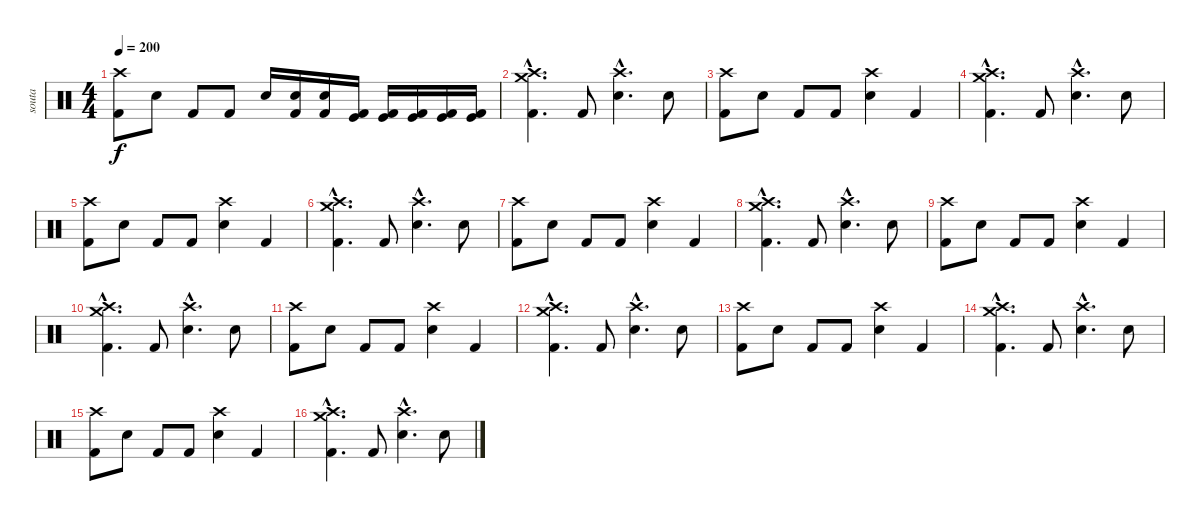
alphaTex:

\track ("souta" "souta") {instrument percussion}
\staff {score}
\articulation defaults
\ts (4 4)
\tempo 200
\clef neutral
\ks c
("Crash high (hit)" "Kick (hit) 2").8{dy f} "Snare (hit) 2".8 "Kick (hit) 2".8 "Kick (hit) 2".8 "Snare (hit) 2".16 ("Kick (hit) 2" "Snare (hit) 2").16 ("Kick (hit) 2" "Snare (hit) 2").16 ("Kick (hit) 2" "Kick (hit)").16 ("Kick (hit) 2" "Kick (hit)").16 ("Kick (hit) 2" "Kick (hit)").16 ("Kick (hit) 2" "Kick (hit)").16 ("Kick (hit) 2" "Kick (hit)").16 |
("Crash high (hit)"{hac} "Kick (hit) 2"{hac} "Crash medium (hit)"{hac}).4{d} "Kick (hit) 2".8 ("Crash high (hit)"{hac} "Snare (hit) 2"{hac}).4{d} "Snare (hit) 2".8 |
("Crash high (hit)" "Kick (hit) 2").8 "Snare (hit) 2".8 "Kick (hit) 2".8 "Kick (hit) 2".8 ("Crash high (hit)" "Snare (hit) 2").4 "Kick (hit) 2".4 |
("Crash high (hit)"{hac} "Kick (hit) 2"{hac} "Crash medium (hit)"{hac}).4{d} "Kick (hit) 2".8 ("Crash high (hit)"{hac} "Snare (hit) 2"{hac}).4{d} "Snare (hit) 2".8 |
("Crash high (hit)" "Kick (hit) 2").8 "Snare (hit) 2".8 "Kick (hit) 2".8 "Kick (hit) 2".8 ("Crash high (hit)" "Snare (hit) 2").4 "Kick (hit) 2".4 |
("Crash high (hit)"{hac} "Kick (hit) 2"{hac} "Crash medium (hit)"{hac}).4{d} "Kick (hit) 2".8 ("Crash high (hit)"{hac} "Snare (hit) 2"{hac}).4{d} "Snare (hit) 2".8 |
("Crash high (hit)" "Kick (hit) 2").8 "Snare (hit) 2".8 "Kick (hit) 2".8 "Kick (hit) 2".8 ("Crash high (hit)" "Snare (hit) 2").4 "Kick (hit) 2".4 |
("Crash high (hit)"{hac} "Kick (hit) 2"{hac} "Crash medium (hit)"{hac}).4{d} "Kick (hit) 2".8 ("Crash high (hit)"{hac} "Snare (hit) 2"{hac}).4{d} "Snare (hit) 2".8 |
("Crash high (hit)" "Kick (hit) 2").8 "Snare (hit) 2".8 "Kick (hit) 2".8 "Kick (hit) 2".8 ("Crash high (hit)" "Snare (hit) 2").4 "Kick (hit) 2".4 |
("Crash high (hit)"{hac} "Kick (hit) 2"{hac} "Crash medium (hit)"{hac}).4{d} "Kick (hit) 2".8 ("Crash high (hit)"{hac} "Snare (hit) 2"{hac}).4{d} "Snare (hit) 2".8 |
("Crash high (hit)" "Kick (hit) 2").8 "Snare (hit) 2".8 "Kick (hit) 2".8 "Kick (hit) 2".8 ("Crash high (hit)" "Snare (hit) 2").4 "Kick (hit) 2".4 |
("Crash high (hit)"{hac} "Kick (hit) 2"{hac} "Crash medium (hit)"{hac}).4{d} "Kick (hit) 2".8 ("Crash high (hit)"{hac} "Snare (hit) 2"{hac}).4{d} "Snare (hit) 2".8 |
("Crash high (hit)" "Kick (hit) 2").8 "Snare (hit) 2".8 "Kick (hit) 2".8 "Kick (hit) 2".8 ("Crash high (hit)" "Snare (hit) 2").4 "Kick (hit) 2".4 |
("Crash high (hit)"{hac} "Kick (hit) 2"{hac} "Crash medium (hit)"{hac}).4{d} "Kick (hit) 2".8 ("Crash high (hit)"{hac} "Snare (hit) 2"{hac}).4{d} "Snare (hit) 2".8 |
("Crash high (hit)" "Kick (hit) 2").8 "Snare (hit) 2".8 "Kick (hit) 2".8 "Kick (hit) 2".8 ("Crash high (hit)" "Snare (hit) 2").4 "Kick (hit) 2".4 |
("Crash high (hit)"{hac} "Kick (hit) 2"{hac} "Crash medium (hit)"{hac}).4{d} "Kick (hit) 2".8 ("Crash high (hit)"{hac} "Snare (hit) 2"{hac}).4{d} "Snare (hit) 2".8
